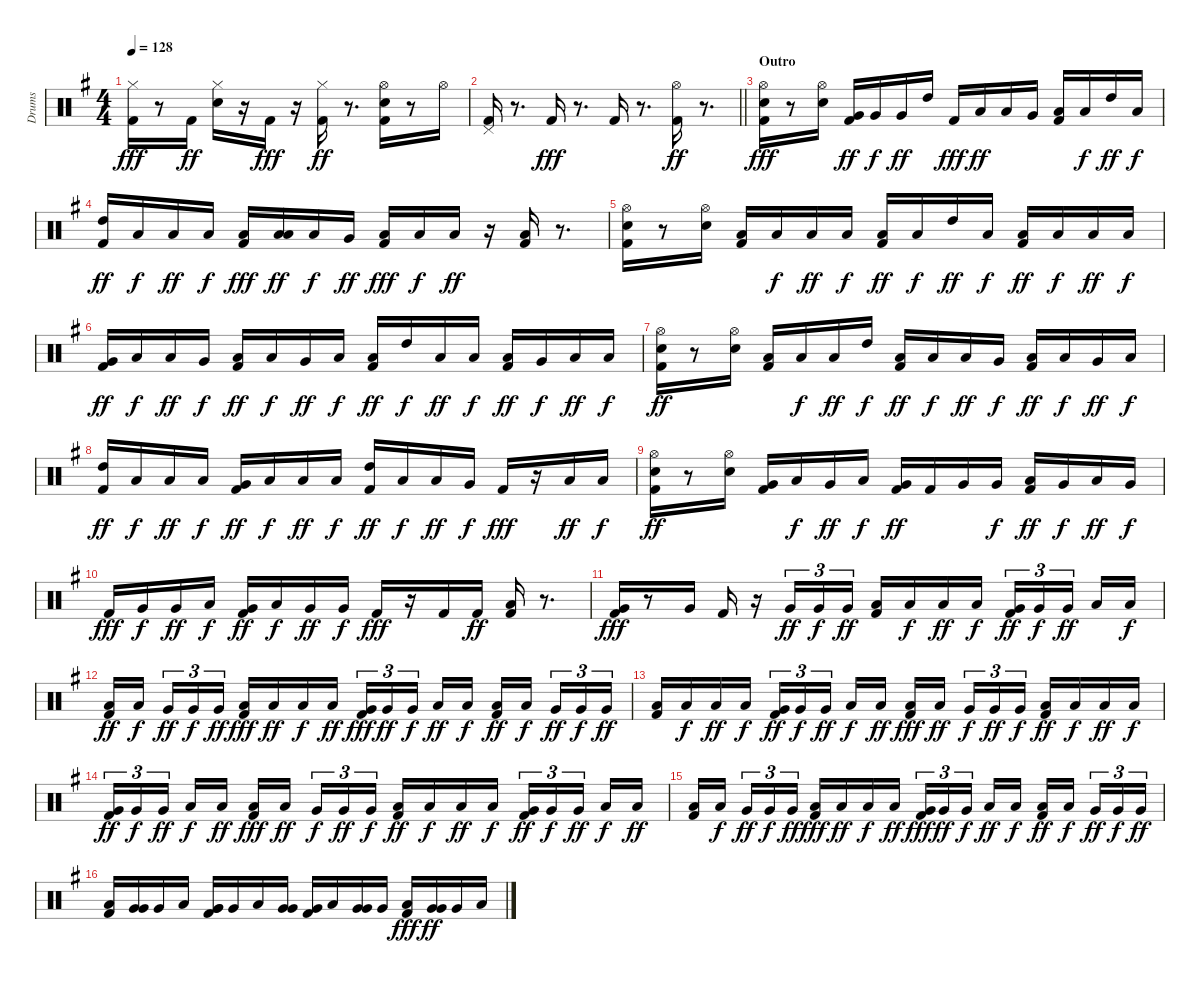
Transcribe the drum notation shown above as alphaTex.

\track ("Drums" "Drums") {instrument percussion}
\staff {score}
\articulation defaults
\ts (4 4)
\tempo 128
\clef neutral
\ks eminor
("Hi-Hat (closed)" "Kick (hit) 2").16{dy fff} r.8 "Kick (hit) 2".16{dy ff} ("Hand Clap (hit)" "Hi-Hat (closed)").16 r.16 "Kick (hit) 2".16{dy fff} r.16 ("Kick (hit) 2" "Hi-Hat (closed)").16{dy ff} r.8{d} ("Hand Clap (hit)" "Kick (hit) 2" "Hi-Hat (open)").16 r.8 "Hi-Hat (open)".16 |
\barLineRight lightlight
("Kick (hit) 2" "Pedal Hi-Hat (hit)").16 r.8{d} "Kick (hit) 2".16{dy fff} r.8{d} "Kick (hit) 2".16 r.8{d} ("Kick (hit) 2" "Hi-Hat (open)").16{dy ff} r.8{d} |
\section ("" "Outro")
("Kick (hit) 2" "Hi-Hat (open)" "Electric Snare (hit)").16{dy fff} r.8 ("Hi-Hat (open)" "Electric Snare (hit)").16 ("Kick (hit) 2" "Very Low Tom (hit)").16{dy ff} "Very Low Tom (hit)".16{dy f} "Very Low Tom (hit)".16{dy ff} "High Tom (hit)".16 "Kick (hit) 2".16{dy fff} "Low Tom (hit)".16{dy ff} "Low Floor Tom (hit)".16 "Very Low Tom (hit)".16 ("Kick (hit) 2" "Low Floor Tom (hit)").16 "Low Floor Tom (hit)".16{dy f} "High Tom (hit)".16{dy ff} "Low Floor Tom (hit)".16{dy f} |
("Kick (hit) 2" "High Tom (hit)").16{dy ff} "Low Floor Tom (hit)".16{dy f} "Low Floor Tom (hit)".16{dy ff} "Low Tom (hit)".16{dy f} ("Low Floor Tom (hit)" "Kick (hit) 2").16{dy fff} ("Low Floor Tom (hit)" "Low Tom (hit)").16{dy ff} "Low Floor Tom (hit)".16{dy f} "Very Low Tom (hit)".16{dy ff} ("Low Floor Tom (hit)" "Kick (hit) 2").16{dy fff} "Low Floor Tom (hit)".16{dy f} "Low Floor Tom (hit)".16{dy ff} r.16 ("Kick (hit) 2" "Low Floor Tom (hit)").16 r.8{d} |
("Electric Snare (hit)" "Kick (hit) 2" "Hi-Hat (open)").16 r.8 ("Electric Snare (hit)" "Hi-Hat (open)").16 ("Kick (hit) 2" "Low Floor Tom (hit)").16 "Low Floor Tom (hit)".16{dy f} "Low Floor Tom (hit)".16{dy ff} "Low Tom (hit)".16{dy f} ("Kick (hit) 2" "Low Floor Tom (hit)").16{dy ff} "Low Floor Tom (hit)".16{dy f} "High Tom (hit)".16{dy ff} "Low Floor Tom (hit)".16{dy f} ("Kick (hit) 2" "Low Floor Tom (hit)").16{dy ff} "Low Tom (hit)".16{dy f} "Low Floor Tom (hit)".16{dy ff} "Low Floor Tom (hit)".16{dy f} |
("Kick (hit) 2" "Very Low Tom (hit)").16{dy ff} "Low Floor Tom (hit)".16{dy f} "Low Floor Tom (hit)".16{dy ff} "Very Low Tom (hit)".16{dy f} ("Kick (hit) 2" "Low Floor Tom (hit)").16{dy ff} "Low Floor Tom (hit)".16{dy f} "Very Low Tom (hit)".16{dy ff} "Low Floor Tom (hit)".16{dy f} ("Kick (hit) 2" "Low Floor Tom (hit)").16{dy ff} "High Tom (hit)".16{dy f} "Low Floor Tom (hit)".16{dy ff} "Low Tom (hit)".16{dy f} ("Kick (hit) 2" "Low Floor Tom (hit)").16{dy ff} "Very Low Tom (hit)".16{dy f} "Low Floor Tom (hit)".16{dy ff} "Low Floor Tom (hit)".16{dy f} |
("Kick (hit) 2" "Electric Snare (hit)" "Hi-Hat (open)").16{dy ff} r.8 ("Electric Snare (hit)" "Hi-Hat (open)").16 ("Kick (hit) 2" "Low Floor Tom (hit)").16 "Low Floor Tom (hit)".16{dy f} "Low Floor Tom (hit)".16{dy ff} "High Tom (hit)".16{dy f} ("Kick (hit) 2" "Low Floor Tom (hit)").16{dy ff} "Low Tom (hit)".16{dy f} "Low Floor Tom (hit)".16{dy ff} "Very Low Tom (hit)".16{dy f} ("Kick (hit) 2" "Low Floor Tom (hit)").16{dy ff} "Low Floor Tom (hit)".16{dy f} "Very Low Tom (hit)".16{dy ff} "Low Floor Tom (hit)".16{dy f} |
("Kick (hit) 2" "High Tom (hit)").16{dy ff} "Low Floor Tom (hit)".16{dy f} "Low Tom (hit)".16{dy ff} "Low Floor Tom (hit)".16{dy f} ("Kick (hit) 2" "Very Low Tom (hit)").16{dy ff} "Low Floor Tom (hit)".16{dy f} "Low Floor Tom (hit)".16{dy ff} "Low Floor Tom (hit)".16{dy f} ("Kick (hit) 2" "High Tom (hit)").16{dy ff} "Low Tom (hit)".16{dy f} "Low Floor Tom (hit)".16{dy ff} "Very Low Tom (hit)".16{dy f} "Kick (hit) 2".16{dy fff} r.16 "Low Floor Tom (hit)".16{dy ff} "Low Floor Tom (hit)".16{dy f} |
("Kick (hit) 2" "Electric Snare (hit)" "Hi-Hat (open)").16{dy ff} r.8 ("Electric Snare (hit)" "Hi-Hat (open)").16 ("Kick (hit) 2" "Very Low Tom (hit)").16 "Low Tom (hit)".16{dy f} "Very Low Tom (hit)".16{dy ff} "Low Floor Tom (hit)".16{dy f} ("Kick (hit) 2" "Very Low Tom (hit)").16{dy ff} "Kick (hit) 2".16 "Very Low Tom (hit)".16 "Very Low Tom (hit)".16{dy f} ("Kick (hit) 2" "Low Tom (hit)").16{dy ff} "Very Low Tom (hit)".16{dy f} "Low Floor Tom (hit)".16{dy ff} "Very Low Tom (hit)".16{dy f} |
"Kick (hit) 2".16{dy fff} "Very Low Tom (hit)".16{dy f} "Very Low Tom (hit)".16{dy ff} "Low Tom (hit)".16{dy f} ("Kick (hit) 2" "Very Low Tom (hit)").16{dy ff} "Low Floor Tom (hit)".16{dy f} "Very Low Tom (hit)".16{dy ff} "Very Low Tom (hit)".16{dy f} "Kick (hit) 2".16{dy fff} r.16 "Kick (hit) 2".16 "Kick (hit) 2".16{dy ff} ("Kick (hit) 2" "Low Tom (hit)").16 r.8{d} |
("Kick (hit) 2" "Very Low Tom (hit)").16{dy fff} r.8 "Very Low Tom (hit)".16 "Kick (hit) 2".16 r.16 "Very Low Tom (hit)".16{tu (3 2) dy ff} "Very Low Tom (hit)".16{tu (3 2) dy f} "Very Low Tom (hit)".16{tu (3 2) dy ff} ("Kick (hit) 2" "Low Floor Tom (hit)").16 "Low Floor Tom (hit)".16{dy f} "Low Floor Tom (hit)".16{dy ff} "Low Floor Tom (hit)".16{dy f} ("Kick (hit) 2" "Very Low Tom (hit)").16{tu (3 2) dy ff} "Very Low Tom (hit)".16{tu (3 2) dy f} "Very Low Tom (hit)".16{tu (3 2) dy ff beam splitsecondary} "Low Floor Tom (hit)".16 "Low Floor Tom (hit)".16{dy f} |
("Kick (hit) 2" "Low Floor Tom (hit)").16{dy ff} "Low Floor Tom (hit)".16{dy f beam splitsecondary} "Very Low Tom (hit)".16{tu (3 2) dy ff} "Very Low Tom (hit)".16{tu (3 2) dy f} "Very Low Tom (hit)".16{tu (3 2) dy ff} ("Kick (hit) 2" "Low Floor Tom (hit)").16{dy fff} "Low Floor Tom (hit)".16{dy ff} "Low Floor Tom (hit)".16{dy f} "Low Floor Tom (hit)".16{dy ff} ("Kick (hit) 2" "Very Low Tom (hit)").16{tu (3 2) dy fff} "Very Low Tom (hit)".16{tu (3 2) dy ff} "Very Low Tom (hit)".16{tu (3 2) dy f beam splitsecondary} "Low Floor Tom (hit)".16{dy ff} "Low Floor Tom (hit)".16{dy f} ("Kick (hit) 2" "Low Floor Tom (hit)").16{dy ff} "Low Floor Tom (hit)".16{dy f beam splitsecondary} "Very Low Tom (hit)".16{tu (3 2) dy ff} "Very Low Tom (hit)".16{tu (3 2) dy f} "Very Low Tom (hit)".16{tu (3 2) dy ff} |
("Kick (hit) 2" "Low Floor Tom (hit)").16 "Low Floor Tom (hit)".16{dy f} "Low Floor Tom (hit)".16{dy ff} "Low Floor Tom (hit)".16{dy f} ("Kick (hit) 2" "Very Low Tom (hit)").16{tu (3 2) dy ff} "Very Low Tom (hit)".16{tu (3 2) dy f} "Very Low Tom (hit)".16{tu (3 2) dy ff beam splitsecondary} "Low Floor Tom (hit)".16{dy f} "Low Floor Tom (hit)".16{dy ff} ("Kick (hit) 2" "Low Floor Tom (hit)").16{dy fff} "Low Floor Tom (hit)".16{dy ff beam splitsecondary} "Very Low Tom (hit)".16{tu (3 2) dy f} "Very Low Tom (hit)".16{tu (3 2) dy ff} "Very Low Tom (hit)".16{tu (3 2) dy f} ("Kick (hit) 2" "Low Floor Tom (hit)").16{dy ff} "Low Floor Tom (hit)".16{dy f} "Low Floor Tom (hit)".16{dy ff} "Low Floor Tom (hit)".16{dy f} |
("Kick (hit) 2" "Very Low Tom (hit)").16{tu (3 2) dy ff} "Very Low Tom (hit)".16{tu (3 2) dy f} "Very Low Tom (hit)".16{tu (3 2) dy ff beam splitsecondary} "Low Floor Tom (hit)".16{dy f} "Low Floor Tom (hit)".16{dy ff} ("Kick (hit) 2" "Low Floor Tom (hit)").16{dy fff} "Low Floor Tom (hit)".16{dy ff beam splitsecondary} "Very Low Tom (hit)".16{tu (3 2) dy f} "Very Low Tom (hit)".16{tu (3 2) dy ff} "Very Low Tom (hit)".16{tu (3 2) dy f} ("Kick (hit) 2" "Low Floor Tom (hit)").16{dy ff} "Low Floor Tom (hit)".16{dy f} "Low Floor Tom (hit)".16{dy ff} "Low Floor Tom (hit)".16{dy f} ("Kick (hit) 2" "Very Low Tom (hit)").16{tu (3 2) dy ff} "Very Low Tom (hit)".16{tu (3 2) dy f} "Very Low Tom (hit)".16{tu (3 2) dy ff beam splitsecondary} "Low Floor Tom (hit)".16{dy f} "Low Floor Tom (hit)".16{dy ff} |
("Kick (hit) 2" "Low Floor Tom (hit)").16 "Low Floor Tom (hit)".16{dy f beam splitsecondary} "Very Low Tom (hit)".16{tu (3 2) dy ff} "Very Low Tom (hit)".16{tu (3 2) dy f} "Very Low Tom (hit)".16{tu (3 2) dy ff} ("Kick (hit) 2" "Low Floor Tom (hit)").16{dy fff} "Low Floor Tom (hit)".16{dy ff} "Low Floor Tom (hit)".16{dy f} "Low Floor Tom (hit)".16{dy ff} ("Kick (hit) 2" "Very Low Tom (hit)").16{tu (3 2) dy fff} "Very Low Tom (hit)".16{tu (3 2) dy ff} "Very Low Tom (hit)".16{tu (3 2) dy f beam splitsecondary} "Low Floor Tom (hit)".16{dy ff} "Low Floor Tom (hit)".16{dy f} ("Kick (hit) 2" "Low Floor Tom (hit)").16{dy ff} "Low Floor Tom (hit)".16{dy f beam splitsecondary} "Very Low Tom (hit)".16{tu (3 2) dy ff} "Very Low Tom (hit)".16{tu (3 2) dy f} "Very Low Tom (hit)".16{tu (3 2) dy ff} |
("Kick (hit) 2" "Low Floor Tom (hit)").16 ("Very Low Tom (hit)" "Very Low Tom (hit)").16 "Very Low Tom (hit)".16 "Low Floor Tom (hit)".16 ("Kick (hit) 2" "Very Low Tom (hit)" "Very Low Tom (hit)").16 "Very Low Tom (hit)".16 "Low Floor Tom (hit)".16 ("Very Low Tom (hit)" "Very Low Tom (hit)").16 ("Kick (hit) 2" "Very Low Tom (hit)").16 "Low Floor Tom (hit)".16 ("Very Low Tom (hit)" "Very Low Tom (hit)").16 "Very Low Tom (hit)".16 ("Low Floor Tom (hit)" "Kick (hit) 2").16{dy fff} ("Very Low Tom (hit)" "Very Low Tom (hit)").16{dy ff} "Very Low Tom (hit)".16 "Low Floor Tom (hit)".16
